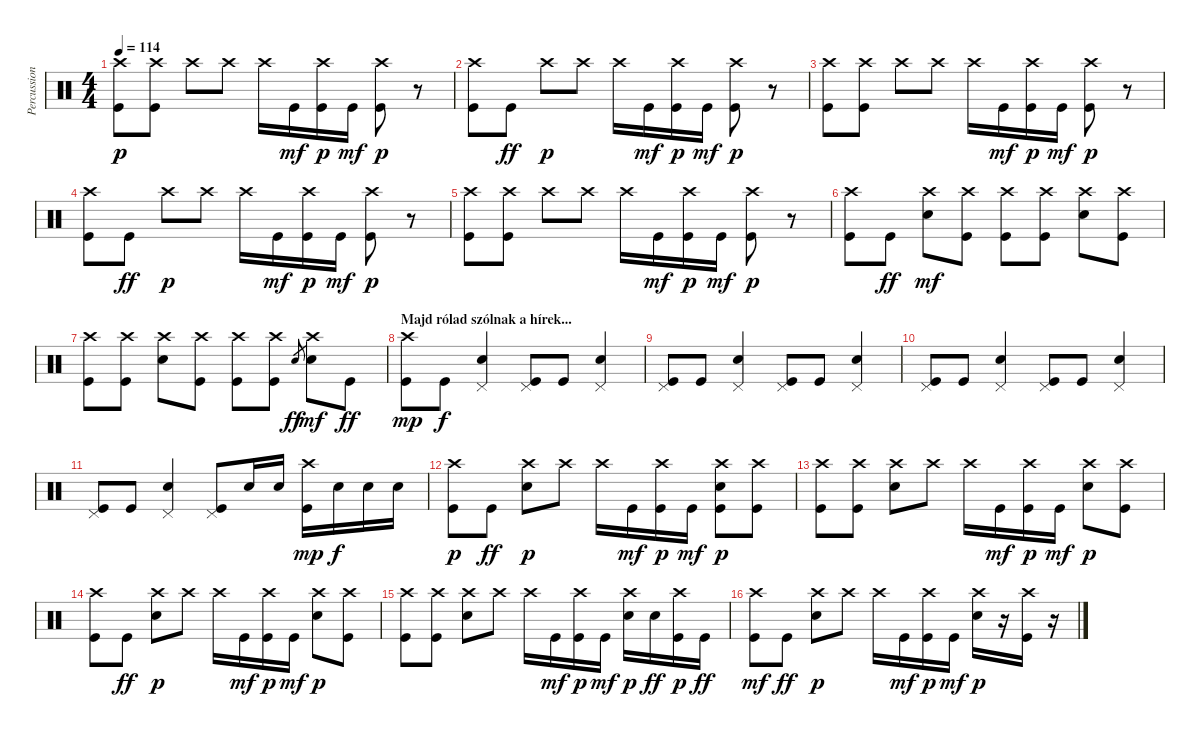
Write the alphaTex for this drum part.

\track ("Percussion" "Percussion") {instrument percussion}
\staff {score}
\articulation defaults
\ts (4 4)
\tempo 114
\clef neutral
\ks c
("Kick (hit)" "Crash high (hit)").8{dy p} ("Kick (hit)" "Crash high (hit)").8 "Crash high (hit)".8 "Crash high (hit)".8 "Crash high (hit)".16 "Kick (hit)".16{dy mf} ("Kick (hit)" "Crash high (hit)").16{dy p} "Kick (hit)".16{dy mf} ("Kick (hit)" "Crash high (hit)").8{dy p} r.8 |
("Kick (hit)" "Crash high (hit)").8 "Kick (hit)".8{dy ff} "Crash high (hit)".8{dy p} "Crash high (hit)".8 "Crash high (hit)".16 "Kick (hit)".16{dy mf} ("Kick (hit)" "Crash high (hit)").16{dy p} "Kick (hit)".16{dy mf} ("Kick (hit)" "Crash high (hit)").8{dy p} r.8 |
("Kick (hit)" "Crash high (hit)").8 ("Kick (hit)" "Crash high (hit)").8 "Crash high (hit)".8 "Crash high (hit)".8 "Crash high (hit)".16 "Kick (hit)".16{dy mf} ("Kick (hit)" "Crash high (hit)").16{dy p} "Kick (hit)".16{dy mf} ("Kick (hit)" "Crash high (hit)").8{dy p} r.8 |
("Kick (hit)" "Crash high (hit)").8 "Kick (hit)".8{dy ff} "Crash high (hit)".8{dy p} "Crash high (hit)".8 "Crash high (hit)".16 "Kick (hit)".16{dy mf} ("Kick (hit)" "Crash high (hit)").16{dy p} "Kick (hit)".16{dy mf} ("Kick (hit)" "Crash high (hit)").8{dy p} r.8 |
("Kick (hit)" "Crash high (hit)").8 ("Kick (hit)" "Crash high (hit)").8 "Crash high (hit)".8 "Crash high (hit)".8 "Crash high (hit)".16 "Kick (hit)".16{dy mf} ("Kick (hit)" "Crash high (hit)").16{dy p} "Kick (hit)".16{dy mf} ("Kick (hit)" "Crash high (hit)").8{dy p} r.8 |
("Kick (hit)" "Crash high (hit)").8 "Kick (hit)".8{dy ff} ("Electric Snare (hit)" "Crash high (hit)").8{dy mf} ("Kick (hit)" "Crash high (hit)").8 ("Kick (hit)" "Crash high (hit)").8 ("Kick (hit)" "Crash high (hit)").8 ("Electric Snare (hit)" "Crash high (hit)").8 ("Kick (hit)" "Crash high (hit)").8 |
("Kick (hit)" "Crash high (hit)").8 ("Kick (hit)" "Crash high (hit)").8 ("Electric Snare (hit)" "Crash high (hit)").8 ("Kick (hit)" "Crash high (hit)").8 ("Kick (hit)" "Crash high (hit)").8 ("Kick (hit)" "Crash high (hit)").8 "Electric Snare (hit)".8{gr dy ff} ("Electric Snare (hit)" "Crash high (hit)").8{dy mf} "Kick (hit)".8{dy ff} |
\section ("" "Majd rólad szólnak a hírek...")
("Kick (hit)" "Crash high (hit)").8{dy mp} "Kick (hit)".8{dy f} ("Electric Snare (hit)" "Pedal Hi-Hat (hit)").4 ("Kick (hit)" "Pedal Hi-Hat (hit)").8 "Kick (hit)".8 ("Electric Snare (hit)" "Pedal Hi-Hat (hit)").4 |
("Kick (hit)" "Pedal Hi-Hat (hit)").8 "Kick (hit)".8 ("Electric Snare (hit)" "Pedal Hi-Hat (hit)").4 ("Kick (hit)" "Pedal Hi-Hat (hit)").8 "Kick (hit)".8 ("Electric Snare (hit)" "Pedal Hi-Hat (hit)").4 |
("Kick (hit)" "Pedal Hi-Hat (hit)").8 "Kick (hit)".8 ("Electric Snare (hit)" "Pedal Hi-Hat (hit)").4 ("Kick (hit)" "Pedal Hi-Hat (hit)").8 "Kick (hit)".8 ("Electric Snare (hit)" "Pedal Hi-Hat (hit)").4 |
("Kick (hit)" "Pedal Hi-Hat (hit)").8 "Kick (hit)".8 ("Electric Snare (hit)" "Pedal Hi-Hat (hit)").4 ("Kick (hit)" "Pedal Hi-Hat (hit)").8 "Electric Snare (hit)".16 "Electric Snare (hit)".16 ("Kick (hit)" "Crash high (hit)").16{dy mp} "Electric Snare (hit)".16{dy f} "Electric Snare (hit)".16 "Electric Snare (hit)".16 |
("Kick (hit)" "Crash high (hit)").8{dy p} "Kick (hit)".8{dy ff} ("Electric Snare (hit)" "Crash high (hit)").8{dy p} "Crash high (hit)".8 "Crash high (hit)".16 "Kick (hit)".16{dy mf} ("Kick (hit)" "Crash high (hit)").16{dy p} "Kick (hit)".16{dy mf} ("Electric Snare (hit)" "Kick (hit)" "Crash high (hit)").8{dy p} ("Kick (hit)" "Crash high (hit)").8 |
("Kick (hit)" "Crash high (hit)").8 ("Kick (hit)" "Crash high (hit)").8 ("Electric Snare (hit)" "Crash high (hit)").8 "Crash high (hit)".8 "Crash high (hit)".16 "Kick (hit)".16{dy mf} ("Kick (hit)" "Crash high (hit)").16{dy p} "Kick (hit)".16{dy mf} ("Electric Snare (hit)" "Crash high (hit)").8{dy p} ("Kick (hit)" "Crash high (hit)").8 |
("Kick (hit)" "Crash high (hit)").8 "Kick (hit)".8{dy ff} ("Electric Snare (hit)" "Crash high (hit)").8{dy p} "Crash high (hit)".8 "Crash high (hit)".16 "Kick (hit)".16{dy mf} ("Kick (hit)" "Crash high (hit)").16{dy p} "Kick (hit)".16{dy mf} ("Electric Snare (hit)" "Crash high (hit)").8{dy p} ("Kick (hit)" "Crash high (hit)").8 |
("Kick (hit)" "Crash high (hit)").8 ("Kick (hit)" "Crash high (hit)").8 ("Electric Snare (hit)" "Crash high (hit)").8 "Crash high (hit)".8 "Crash high (hit)".16 "Kick (hit)".16{dy mf} ("Kick (hit)" "Crash high (hit)").16{dy p} "Kick (hit)".16{dy mf} ("Electric Snare (hit)" "Crash high (hit)").16{dy p} "Electric Snare (hit)".16{dy ff} ("Kick (hit)" "Crash high (hit)").16{dy p} "Kick (hit)".16{dy ff} |
("Kick (hit)" "Crash high (hit)").8{dy mf} "Kick (hit)".8{dy ff} ("Electric Snare (hit)" "Crash high (hit)").8{dy p} "Crash high (hit)".8 "Crash high (hit)".16 "Kick (hit)".16{dy mf} ("Kick (hit)" "Crash high (hit)").16{dy p} "Kick (hit)".16{dy mf} ("Electric Snare (hit)" "Crash high (hit)").16{dy p} r.16 ("Kick (hit)" "Crash high (hit)").16 r.16
